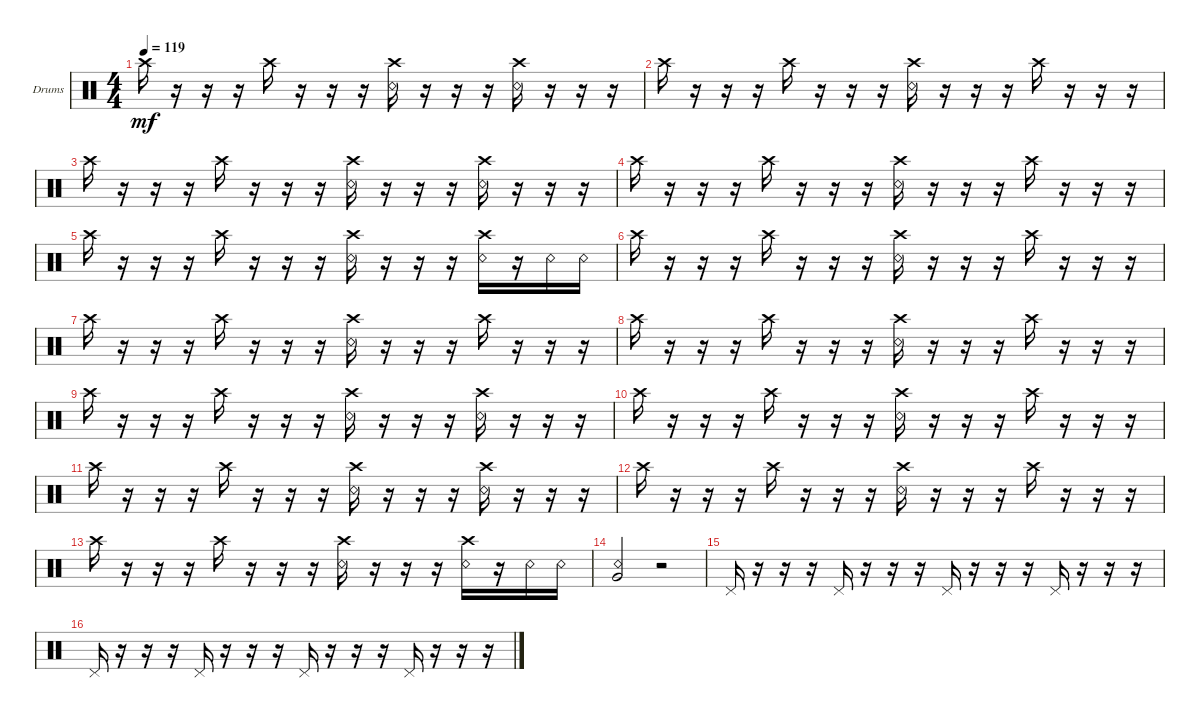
\defaultSystemsLayout 4
\bracketExtendMode groupsimilarinstruments
\firstSystemTrackNameOrientation horizontal
\otherSystemsTrackNameOrientation horizontal
\track ("Drumkit" "Drums") {instrument percussion}
\staff {score}
\articulation defaults
\ts (4 4)
\tempo 119
\clef neutral
\scale
0.333333
\ks c "Crash high (hit)".16{dy mf}
r.16 r.16 r.16 "Crash high (hit)".16 r.16 r.16 r.16 ("Snare (rim shot)" "Crash high (hit)").16 r.16 r.16 r.16 ("Crash high (hit)" "Snare (rim shot)").16 r.16 r.16 r.16 |
\scale
0.333333 "Crash high (hit)".16 r.16 r.16 r.16 "Crash high (hit)".16 r.16 r.16 r.16 ("Snare (rim shot)" "Crash high (hit)").16 r.16 r.16 r.16 "Crash high (hit)".16 r.16 r.16 r.16 |
\scale
0.333333 "Crash high (hit)".16 r.16 r.16 r.16 "Crash high (hit)".16 r.16 r.16 r.16 ("Snare (rim shot)" "Crash high (hit)").16 r.16 r.16 r.16 ("Crash high (hit)" "Snare (rim shot)").16 r.16 r.16 r.16 |
\scale
0.333333 "Crash high (hit)".16 r.16 r.16 r.16 "Crash high (hit)".16 r.16 r.16 r.16 ("Snare (rim shot)" "Crash high (hit)").16 r.16 r.16 r.16 "Crash high (hit)".16 r.16 r.16 r.16 |
\scale
0.333333 "Crash high (hit)".16 r.16 r.16 r.16 "Crash high (hit)".16 r.16 r.16 r.16 ("Snare (rim shot)" "Crash high (hit)").16 r.16 r.16 r.16 ("Crash high (hit)" "Snare (rim shot)").16 r.16 "Snare (rim shot)".16 "Snare (rim shot)".16 |
\scale
0.333333 "Crash high (hit)".16 r.16 r.16 r.16 "Crash high (hit)".16 r.16 r.16 r.16 ("Snare (rim shot)" "Crash high (hit)").16 r.16 r.16 r.16 "Crash high (hit)".16 r.16 r.16 r.16 |
\scale
0.333333 "Crash high (hit)".16 r.16 r.16 r.16 "Crash high (hit)".16 r.16 r.16 r.16 ("Snare (rim shot)" "Crash high (hit)").16 r.16 r.16 r.16 "Crash high (hit)".16 r.16 r.16 r.16 |
\scale
0.333333 "Crash high (hit)".16 r.16 r.16 r.16 "Crash high (hit)".16 r.16 r.16 r.16 ("Snare (rim shot)" "Crash high (hit)").16 r.16 r.16 r.16 "Crash high (hit)".16 r.16 r.16 r.16 |
\scale
0.333333 "Crash high (hit)".16 r.16 r.16 r.16 "Crash high (hit)".16 r.16 r.16 r.16 ("Snare (rim shot)" "Crash high (hit)").16 r.16 r.16 r.16 ("Crash high (hit)" "Snare (rim shot)").16 r.16 r.16 r.16 |
\scale
0.333333 "Crash high (hit)".16 r.16 r.16 r.16 "Crash high (hit)".16 r.16 r.16 r.16 ("Snare (rim shot)" "Crash high (hit)").16 r.16 r.16 r.16 "Crash high (hit)".16 r.16 r.16 r.16 |
\scale
0.333333 "Crash high (hit)".16 r.16 r.16 r.16 "Crash high (hit)".16 r.16 r.16 r.16 ("Snare (rim shot)" "Crash high (hit)").16 r.16 r.16 r.16 ("Crash high (hit)" "Snare (rim shot)").16 r.16 r.16 r.16 |
\scale
0.333333 "Crash high (hit)".16 r.16 r.16 r.16 "Crash high (hit)".16 r.16 r.16 r.16 ("Snare (rim shot)" "Crash high (hit)").16 r.16 r.16 r.16 "Crash high (hit)".16 r.16 r.16 r.16 |
\scale
0.333333 "Crash high (hit)".16 r.16 r.16 r.16 "Crash high (hit)".16 r.16 r.16 r.16 ("Snare (rim shot)" "Crash high (hit)").16 r.16 r.16 r.16 ("Crash high (hit)" "Snare (rim shot)").16 r.16 "Snare (rim shot)".16 "Snare (rim shot)".16 |
\scale
0.333333 ("Very Low Tom (hit)" "Snare (rim shot)").2 r.2 |
\scale
0.333333 "Pedal Hi-Hat (hit)".16 r.16 r.16 r.16 "Pedal Hi-Hat (hit)".16 r.16 r.16 r.16 "Pedal Hi-Hat (hit)".16 r.16 r.16 r.16 "Pedal Hi-Hat (hit)".16 r.16 r.16 r.16 |
\scale
0.333333 "Pedal Hi-Hat (hit)".16 r.16 r.16 r.16 "Pedal Hi-Hat (hit)".16 r.16 r.16 r.16 "Pedal Hi-Hat (hit)".16 r.16 r.16 r.16 "Pedal Hi-Hat (hit)".16 r.16 r.16 r.16
